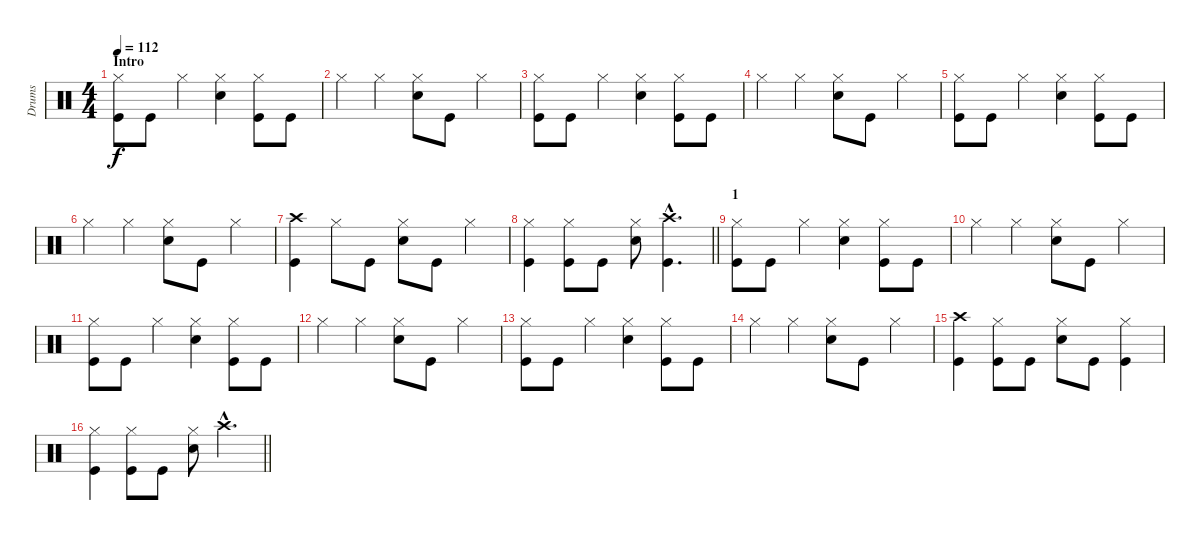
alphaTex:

\track ("Drums" "Drums") {instrument percussion}
\staff {score}
\articulation defaults
\ts (4 4)
\section ("" "Intro")
\tempo 112
\clef neutral
\ks c
("Hi-Hat (closed)" "Kick (hit)").8{dy f} "Kick (hit)".8 "Hi-Hat (closed)".4 ("Snare (hit) 2" "Hi-Hat (closed)").4 ("Hi-Hat (closed)" "Kick (hit)").8 "Kick (hit)".8 |
"Hi-Hat (closed)".4 "Hi-Hat (closed)".4 ("Snare (hit) 2" "Hi-Hat (closed)").8 "Kick (hit)".8 "Hi-Hat (closed)".4 |
("Hi-Hat (closed)" "Kick (hit)").8 "Kick (hit)".8 "Hi-Hat (closed)".4 ("Snare (hit) 2" "Hi-Hat (closed)").4 ("Hi-Hat (closed)" "Kick (hit)").8 "Kick (hit)".8 |
"Hi-Hat (closed)".4 "Hi-Hat (closed)".4 ("Snare (hit) 2" "Hi-Hat (closed)").8 "Kick (hit)".8 "Hi-Hat (closed)".4 |
("Hi-Hat (closed)" "Kick (hit)").8 "Kick (hit)".8 "Hi-Hat (closed)".4 ("Snare (hit) 2" "Hi-Hat (closed)").4 ("Hi-Hat (closed)" "Kick (hit)").8 "Kick (hit)".8 |
"Hi-Hat (closed)".4 "Hi-Hat (closed)".4 ("Snare (hit) 2" "Hi-Hat (closed)").8 "Kick (hit)".8 "Hi-Hat (closed)".4 |
("Crash high (hit)" "Kick (hit)").4 "Hi-Hat (closed)".8 "Kick (hit)".8 ("Snare (hit) 2" "Hi-Hat (closed)").8 "Kick (hit)".8 "Hi-Hat (closed)".4 |
\barLineRight lightlight
("Hi-Hat (closed)" "Kick (hit)").4 ("Hi-Hat (closed)" "Kick (hit)").8 "Kick (hit)".8 ("Hi-Hat (closed)" "Snare (hit) 2").8 ("Kick (hit)"{hac} "Crash high (hit)"{hac}).4{d} |
\section ("" "1")
("Hi-Hat (closed)" "Kick (hit)").8 "Kick (hit)".8 "Hi-Hat (closed)".4 ("Snare (hit) 2" "Hi-Hat (closed)").4 ("Hi-Hat (closed)" "Kick (hit)").8 "Kick (hit)".8 |
"Hi-Hat (closed)".4 "Hi-Hat (closed)".4 ("Snare (hit) 2" "Hi-Hat (closed)").8 "Kick (hit)".8 "Hi-Hat (closed)".4 |
("Hi-Hat (closed)" "Kick (hit)").8 "Kick (hit)".8 "Hi-Hat (closed)".4 ("Snare (hit) 2" "Hi-Hat (closed)").4 ("Hi-Hat (closed)" "Kick (hit)").8 "Kick (hit)".8 |
"Hi-Hat (closed)".4 "Hi-Hat (closed)".4 ("Snare (hit) 2" "Hi-Hat (closed)").8 "Kick (hit)".8 "Hi-Hat (closed)".4 |
("Hi-Hat (closed)" "Kick (hit)").8 "Kick (hit)".8 "Hi-Hat (closed)".4 ("Snare (hit) 2" "Hi-Hat (closed)").4 ("Hi-Hat (closed)" "Kick (hit)").8 "Kick (hit)".8 |
"Hi-Hat (closed)".4 "Hi-Hat (closed)".4 ("Snare (hit) 2" "Hi-Hat (closed)").8 "Kick (hit)".8 "Hi-Hat (closed)".4 |
("Crash high (hit)" "Kick (hit)").4 ("Hi-Hat (closed)" "Kick (hit)").8 "Kick (hit)".8 ("Snare (hit) 2" "Hi-Hat (closed)").8 "Kick (hit)".8 ("Kick (hit)" "Hi-Hat (closed)").4 |
\barLineRight lightlight
("Hi-Hat (closed)" "Kick (hit)").4 ("Hi-Hat (closed)" "Kick (hit)").8 "Kick (hit)".8 ("Snare (hit) 2" "Hi-Hat (closed)").8 "Crash high (hit)"{hac}.4{d}
